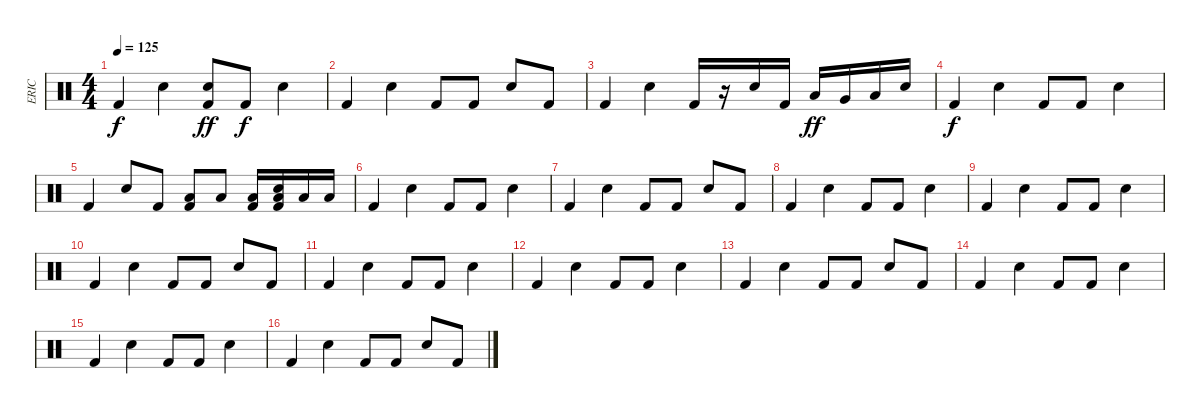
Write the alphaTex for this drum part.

\track ("ERIC" "ERIC") {instrument percussion}
\staff {score}
\articulation defaults
\ts (4 4)
\tempo 125
\clef neutral
\ks c "Kick (hit) 2".4{dy f} "Electric Snare (hit)".4
("Electric Snare (hit)" "Kick (hit) 2").8{dy ff} "Kick (hit) 2".8{dy f} "Electric Snare (hit)".4 |
"Kick (hit) 2".4 "Electric Snare (hit)".4 "Kick (hit) 2".8 "Kick (hit) 2".8 "Electric Snare (hit)".8 "Kick (hit) 2".8 |
"Kick (hit) 2".4 "Electric Snare (hit)".4 "Kick (hit) 2".16 r.16 "Electric Snare (hit)".16 "Kick (hit) 2".16 "Low Tom (hit)".16{dy ff} "Very Low Tom (hit)".16 "Low Floor Tom (hit)".16 "Electric Snare (hit)".16 |
"Kick (hit) 2".4{dy f} "Electric Snare (hit)".4 "Kick (hit) 2".8 "Kick (hit) 2".8 "Electric Snare (hit)".4 |
"Kick (hit) 2".4 "Electric Snare (hit)".8 "Kick (hit) 2".8 ("Low Floor Tom (hit)" "Kick (hit) 2").8 "Low Floor Tom (hit)".8 ("Low Floor Tom (hit)" "Kick (hit) 2").16 ("Electric Snare (hit)" "Low Floor Tom (hit)" "Kick (hit) 2").16 "Low Tom (hit)".16 "Low Floor Tom (hit)".16 |
"Kick (hit) 2".4 "Electric Snare (hit)".4 "Kick (hit) 2".8 "Kick (hit) 2".8 "Electric Snare (hit)".4 |
"Kick (hit) 2".4 "Electric Snare (hit)".4 "Kick (hit) 2".8 "Kick (hit) 2".8 "Electric Snare (hit)".8 "Kick (hit) 2".8 |
"Kick (hit) 2".4 "Electric Snare (hit)".4 "Kick (hit) 2".8 "Kick (hit) 2".8 "Electric Snare (hit)".4 |
"Kick (hit) 2".4 "Electric Snare (hit)".4 "Kick (hit) 2".8 "Kick (hit) 2".8 "Electric Snare (hit)".4 |
"Kick (hit) 2".4 "Electric Snare (hit)".4 "Kick (hit) 2".8 "Kick (hit) 2".8 "Electric Snare (hit)".8 "Kick (hit) 2".8 |
"Kick (hit) 2".4 "Electric Snare (hit)".4 "Kick (hit) 2".8 "Kick (hit) 2".8 "Electric Snare (hit)".4 |
"Kick (hit) 2".4 "Electric Snare (hit)".4 "Kick (hit) 2".8 "Kick (hit) 2".8 "Electric Snare (hit)".4 |
"Kick (hit) 2".4 "Electric Snare (hit)".4 "Kick (hit) 2".8 "Kick (hit) 2".8 "Electric Snare (hit)".8 "Kick (hit) 2".8 |
"Kick (hit) 2".4 "Electric Snare (hit)".4 "Kick (hit) 2".8 "Kick (hit) 2".8 "Electric Snare (hit)".4 |
"Kick (hit) 2".4 "Electric Snare (hit)".4 "Kick (hit) 2".8 "Kick (hit) 2".8 "Electric Snare (hit)".4 |
"Kick (hit) 2".4 "Electric Snare (hit)".4 "Kick (hit) 2".8 "Kick (hit) 2".8 "Electric Snare (hit)".8 "Kick (hit) 2".8
